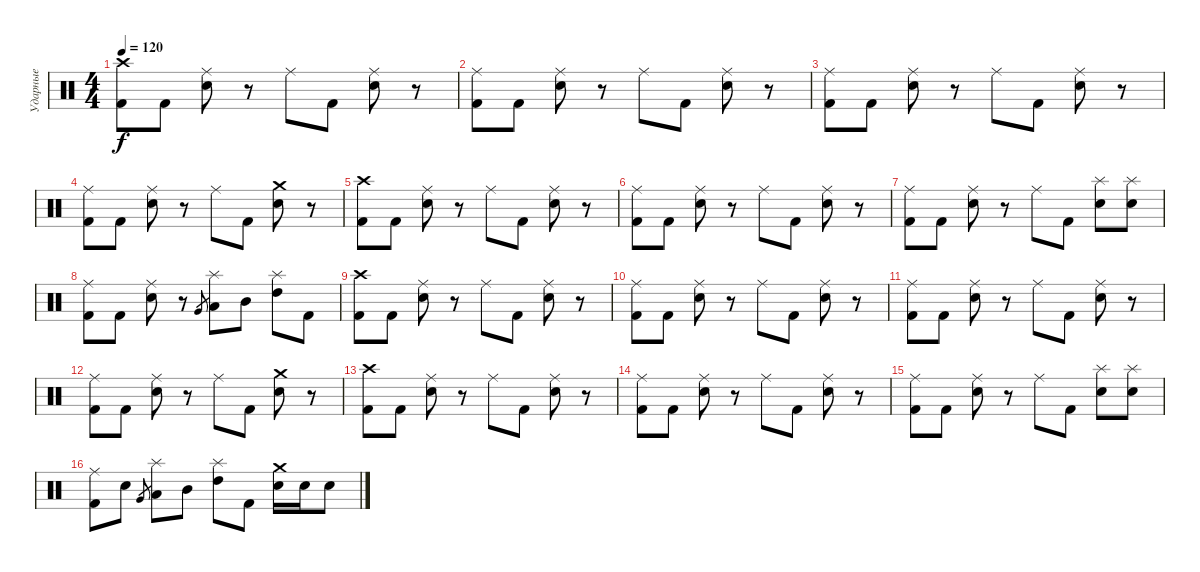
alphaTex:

\track ("Ударные" "Ударные") {instrument percussion}
\staff {score}
\articulation defaults
\ts (4 4)
\tempo 120
\clef neutral
\ks c
("Crash high (hit)" "Kick (hit) 2").8{dy f} "Kick (hit) 2".8 ("Ride (middle)" "Electric Snare (hit)").8 r.8 "Ride (middle)".8 "Kick (hit) 2".8 ("Ride (middle)" "Electric Snare (hit)").8 r.8 |
("Ride (middle)" "Kick (hit) 2").8 "Kick (hit) 2".8 ("Ride (middle)" "Electric Snare (hit)").8 r.8 "Ride (middle)".8 "Kick (hit) 2".8 ("Ride (middle)" "Electric Snare (hit)").8 r.8 |
("Ride (middle)" "Kick (hit) 2").8 "Kick (hit) 2".8 ("Ride (middle)" "Electric Snare (hit)").8 r.8 "Ride (middle)".8 "Kick (hit) 2".8 ("Ride (middle)" "Electric Snare (hit)").8 r.8 |
("Ride (middle)" "Kick (hit) 2").8 "Kick (hit) 2".8 ("Ride (middle)" "Electric Snare (hit)").8 r.8 "Ride (middle)".8 "Kick (hit) 2".8 ("Crash medium (hit)" "Electric Snare (hit)").8 r.8 |
("Crash high (hit)" "Kick (hit) 2").8 "Kick (hit) 2".8 ("Ride (middle)" "Electric Snare (hit)").8 r.8 "Ride (middle)".8 "Kick (hit) 2".8 ("Ride (middle)" "Electric Snare (hit)").8 r.8 |
("Ride (middle)" "Kick (hit) 2").8 "Kick (hit) 2".8 ("Ride (middle)" "Electric Snare (hit)").8 r.8 "Ride (middle)".8 "Kick (hit) 2".8 ("Ride (middle)" "Electric Snare (hit)").8 r.8 |
("Ride (middle)" "Kick (hit) 2").8 "Kick (hit) 2".8 ("Ride (middle)" "Electric Snare (hit)").8 r.8 "Ride (middle)".8 "Kick (hit) 2".8 ("Splash (hit)" "Electric Snare (hit)").8 ("Splash (hit)" "Electric Snare (hit)").8 |
("Ride (middle)" "Kick (hit) 2").8 "Kick (hit) 2".8 ("Ride (middle)" "Electric Snare (hit)").8 r.8 "Very Low Tom (hit)".8{gr} ("Splash (hit)" "Low Tom (hit)").8 "Mid Tom (hit)".8 ("Splash (hit)" "High Tom (hit)").8 "Kick (hit) 2".8 |
("Crash high (hit)" "Kick (hit) 2").8 "Kick (hit) 2".8 ("Ride (middle)" "Electric Snare (hit)").8 r.8 "Ride (middle)".8 "Kick (hit) 2".8 ("Ride (middle)" "Electric Snare (hit)").8 r.8 |
("Ride (middle)" "Kick (hit) 2").8 "Kick (hit) 2".8 ("Ride (middle)" "Electric Snare (hit)").8 r.8 "Ride (middle)".8 "Kick (hit) 2".8 ("Ride (middle)" "Electric Snare (hit)").8 r.8 |
("Ride (middle)" "Kick (hit) 2").8 "Kick (hit) 2".8 ("Ride (middle)" "Electric Snare (hit)").8 r.8 "Ride (middle)".8 "Kick (hit) 2".8 ("Ride (middle)" "Electric Snare (hit)").8 r.8 |
("Ride (middle)" "Kick (hit) 2").8 "Kick (hit) 2".8 ("Ride (middle)" "Electric Snare (hit)").8 r.8 "Ride (middle)".8 "Kick (hit) 2".8 ("Crash medium (hit)" "Electric Snare (hit)").8 r.8 |
("Crash high (hit)" "Kick (hit) 2").8 "Kick (hit) 2".8 ("Ride (middle)" "Electric Snare (hit)").8 r.8 "Ride (middle)".8 "Kick (hit) 2".8 ("Ride (middle)" "Electric Snare (hit)").8 r.8 |
("Ride (middle)" "Kick (hit) 2").8 "Kick (hit) 2".8 ("Ride (middle)" "Electric Snare (hit)").8 r.8 "Ride (middle)".8 "Kick (hit) 2".8 ("Ride (middle)" "Electric Snare (hit)").8 r.8 |
("Ride (middle)" "Kick (hit) 2").8 "Kick (hit) 2".8 ("Ride (middle)" "Electric Snare (hit)").8 r.8 "Ride (middle)".8 "Kick (hit) 2".8 ("Splash (hit)" "Electric Snare (hit)").8 ("Splash (hit)" "Electric Snare (hit)").8 |
("Ride (middle)" "Kick (hit) 2").8 "Electric Snare (hit)".8 "Very Low Tom (hit)".8{gr} ("Splash (hit)" "Low Tom (hit)").8 "Mid Tom (hit)".8 ("Splash (hit)" "High Tom (hit)").8 "Kick (hit) 2".8 ("Crash medium (hit)" "Electric Snare (hit)").16 "Electric Snare (hit)".16 "Electric Snare (hit)".8
